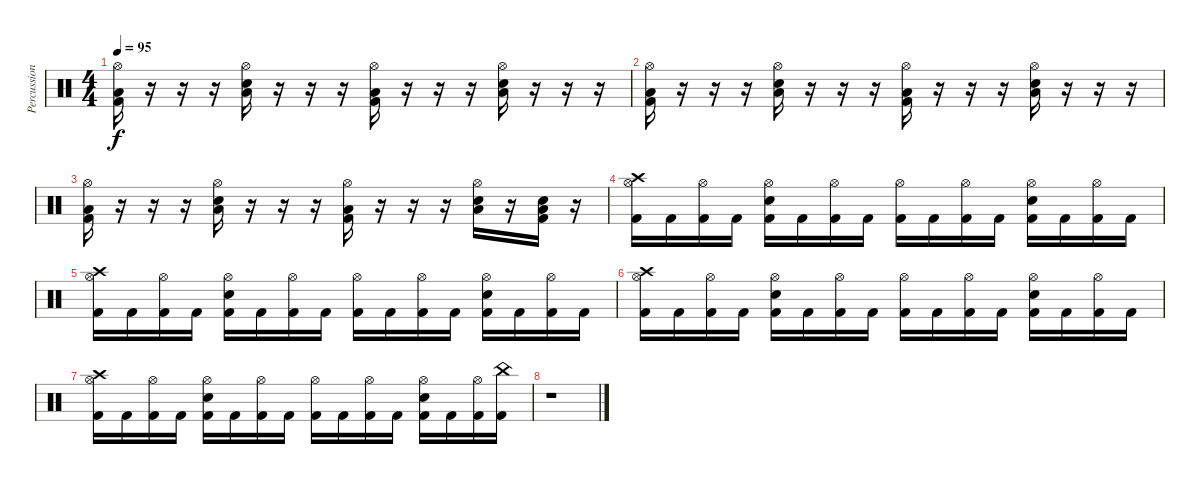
\track ("Percussion" "Percussion") {instrument percussion}
\staff {score}
\articulation defaults
\ts (4 4)
\tempo 95
\clef neutral
\ks c
("Hi-Hat (open)" "Low Floor Tom (hit)" "Kick (hit) 2").16{dy f} r.16 r.16 r.16 ("Hi-Hat (open)" "Low Floor Tom (hit)" "Electric Snare (hit)").16 r.16 r.16 r.16 ("Hi-Hat (open)" "Low Floor Tom (hit)" "Kick (hit) 2").16 r.16 r.16 r.16 ("Hi-Hat (open)" "Low Floor Tom (hit)" "Electric Snare (hit)").16 r.16 r.16 r.16 |
("Hi-Hat (open)" "Low Floor Tom (hit)" "Kick (hit) 2").16 r.16 r.16 r.16 ("Hi-Hat (open)" "Low Floor Tom (hit)" "Electric Snare (hit)").16 r.16 r.16 r.16 ("Hi-Hat (open)" "Low Floor Tom (hit)" "Kick (hit) 2").16 r.16 r.16 r.16 ("Hi-Hat (open)" "Low Floor Tom (hit)" "Electric Snare (hit)").16 r.16 r.16 r.16 |
("Hi-Hat (open)" "Low Floor Tom (hit)" "Kick (hit) 2").16 r.16 r.16 r.16 ("Hi-Hat (open)" "Low Floor Tom (hit)" "Electric Snare (hit)").16 r.16 r.16 r.16 ("Hi-Hat (open)" "Low Floor Tom (hit)" "Kick (hit) 2").16 r.16 r.16 r.16 ("Hi-Hat (open)" "Low Floor Tom (hit)" "Electric Snare (hit)").16 r.16 ("Low Floor Tom (hit)" "Kick (hit) 2" "Electric Snare (hit)").16 r.16 |
("Crash high (hit)" "Hi-Hat (open)" "Kick (hit) 2").16 "Kick (hit) 2".16 ("Hi-Hat (open)" "Kick (hit) 2").16 "Kick (hit) 2".16 ("Hi-Hat (open)" "Electric Snare (hit)" "Kick (hit) 2").16 "Kick (hit) 2".16 ("Hi-Hat (open)" "Kick (hit) 2").16 "Kick (hit) 2".16 ("Hi-Hat (open)" "Kick (hit) 2").16 "Kick (hit) 2".16 ("Hi-Hat (open)" "Kick (hit) 2").16 "Kick (hit) 2".16 ("Hi-Hat (open)" "Electric Snare (hit)" "Kick (hit) 2").16 "Kick (hit) 2".16 ("Hi-Hat (open)" "Kick (hit) 2").16 "Kick (hit) 2".16 |
("Crash high (hit)" "Hi-Hat (open)" "Kick (hit) 2").16 "Kick (hit) 2".16 ("Hi-Hat (open)" "Kick (hit) 2").16 "Kick (hit) 2".16 ("Hi-Hat (open)" "Electric Snare (hit)" "Kick (hit) 2").16 "Kick (hit) 2".16 ("Hi-Hat (open)" "Kick (hit) 2").16 "Kick (hit) 2".16 ("Hi-Hat (open)" "Kick (hit) 2").16 "Kick (hit) 2".16 ("Hi-Hat (open)" "Kick (hit) 2").16 "Kick (hit) 2".16 ("Hi-Hat (open)" "Electric Snare (hit)" "Kick (hit) 2").16 "Kick (hit) 2".16 ("Hi-Hat (open)" "Kick (hit) 2").16 "Kick (hit) 2".16 |
("Crash high (hit)" "Hi-Hat (open)" "Kick (hit) 2").16 "Kick (hit) 2".16 ("Hi-Hat (open)" "Kick (hit) 2").16 "Kick (hit) 2".16 ("Hi-Hat (open)" "Electric Snare (hit)" "Kick (hit) 2").16 "Kick (hit) 2".16 ("Hi-Hat (open)" "Kick (hit) 2").16 "Kick (hit) 2".16 ("Hi-Hat (open)" "Kick (hit) 2").16 "Kick (hit) 2".16 ("Hi-Hat (open)" "Kick (hit) 2").16 "Kick (hit) 2".16 ("Hi-Hat (open)" "Electric Snare (hit)" "Kick (hit) 2").16 "Kick (hit) 2".16 ("Hi-Hat (open)" "Kick (hit) 2").16 "Kick (hit) 2".16 |
("Crash high (hit)" "Hi-Hat (open)" "Kick (hit) 2").16 "Kick (hit) 2".16 ("Hi-Hat (open)" "Kick (hit) 2").16 "Kick (hit) 2".16 ("Hi-Hat (open)" "Electric Snare (hit)" "Kick (hit) 2").16 "Kick (hit) 2".16 ("Hi-Hat (open)" "Kick (hit) 2").16 "Kick (hit) 2".16 ("Hi-Hat (open)" "Kick (hit) 2").16 "Kick (hit) 2".16 ("Hi-Hat (open)" "Kick (hit) 2").16 "Kick (hit) 2".16 ("Hi-Hat (open)" "Electric Snare (hit)" "Kick (hit) 2").16 "Kick (hit) 2".16 ("Hi-Hat (open)" "Kick (hit) 2").16 ("China (hit)" "Kick (hit) 2").16 |
r.1
